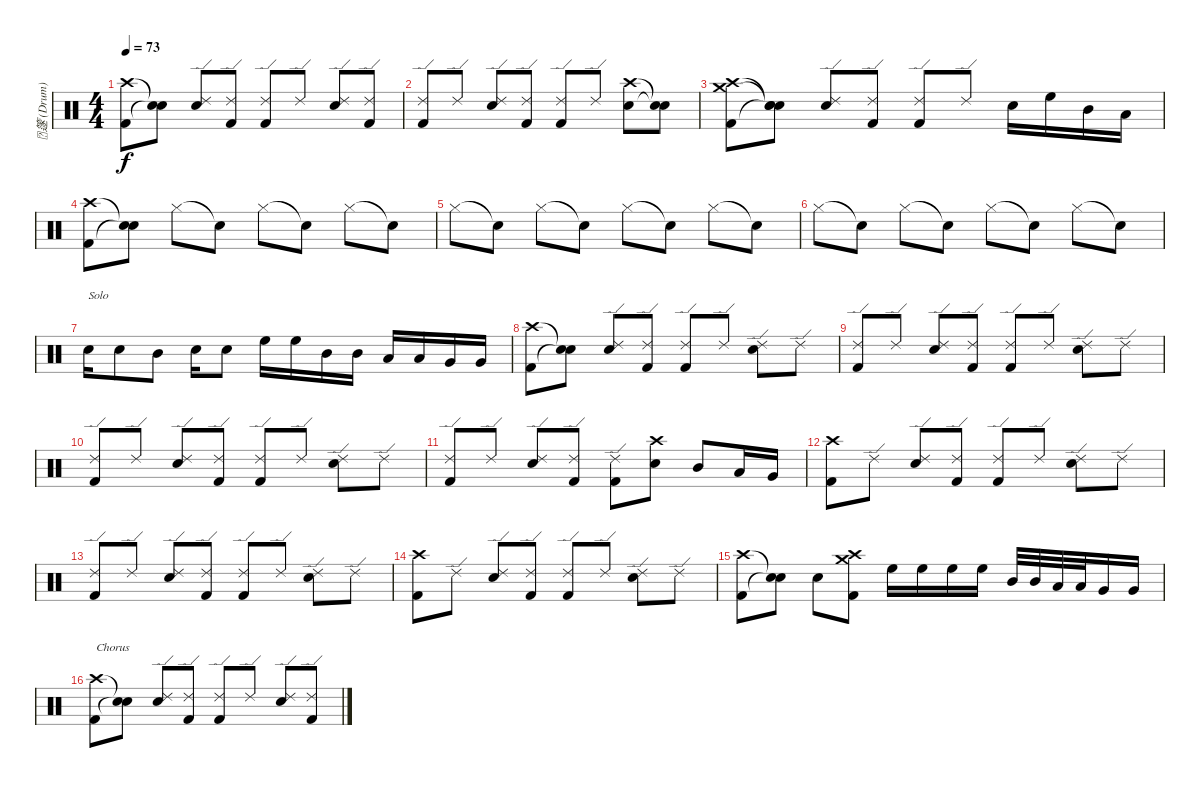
\track ("篴 (Drum)" "篴 (Drum)") {instrument percussion}
\staff {score}
\articulation defaults
\ts (4 4)
\tempo 73
\clef neutral
\ks c
("Crash high (hit)" "Kick (hit) 2").8{dy f} ("Snare (hit)"{t} "Snare (hit)"{t}).8 ("Ride (edge) 2" "Electric Snare (hit)").8 ("Ride (edge) 2" "Kick (hit) 2").8 ("Ride (edge) 2" "Kick (hit) 2").8 "Ride (edge) 2".8 ("Ride (edge) 2" "Electric Snare (hit)").8 ("Ride (edge) 2" "Kick (hit) 2").8 |
("Ride (edge) 2" "Kick (hit) 2").8 "Ride (edge) 2".8 ("Ride (edge) 2" "Electric Snare (hit)").8 ("Ride (edge) 2" "Kick (hit) 2").8 ("Ride (edge) 2" "Kick (hit) 2").8 "Ride (edge) 2".8 ("Crash high (hit)" "Electric Snare (hit)").8 ("Snare (hit)"{t} "Snare (hit)"{t}).8 |
("Crash high (hit)" "Crash medium (hit)" "Kick (hit) 2").8 ("Snare (hit)"{t} "Snare (hit)"{t} "Snare (hit)"{t}).8 ("Ride (edge) 2" "Electric Snare (hit)").8 ("Ride (edge) 2" "Kick (hit) 2").8 ("Ride (edge) 2" "Kick (hit) 2").8 "Ride (edge) 2".8 "Electric Snare (hit)".16 "High Floor Tom (hit)".16 "Mid Tom (hit)".16 "Low Tom (hit)".16 |
("Crash high (hit)" "Kick (hit) 2").8 ("Snare (hit)"{t} "Snare (hit)"{t}).8 "Hi-Hat (closed)".8 "Snare (hit)"{t}.8 "Hi-Hat (closed)".8 "Snare (hit)"{t}.8 "Hi-Hat (closed)".8 "Snare (hit)"{t}.8 |
"Hi-Hat (closed)".8 "Snare (hit)"{t}.8 "Hi-Hat (closed)".8 "Snare (hit)"{t}.8 "Hi-Hat (closed)".8 "Snare (hit)"{t}.8 "Hi-Hat (closed)".8 "Snare (hit)"{t}.8 |
"Hi-Hat (closed)".8 "Snare (hit)"{t}.8 "Hi-Hat (closed)".8 "Snare (hit)"{t}.8 "Hi-Hat (closed)".8 "Snare (hit)"{t}.8 "Hi-Hat (closed)".8 "Snare (hit)"{t}.8 |
"Electric Snare (hit)".16{txt "Solo"} "Electric Snare (hit)".8 "Mid Tom (hit)".8 "Electric Snare (hit)".16 "Electric Snare (hit)".8 "High Floor Tom (hit)".16 "High Floor Tom (hit)".16 "Mid Tom (hit)".16 "Mid Tom (hit)".16 "Low Tom (hit)".16 "Low Tom (hit)".16 "Very Low Tom (hit)".16 "Very Low Tom (hit)".16 |
("Crash high (hit)" "Kick (hit) 2").8 ("Snare (hit)"{t} "Snare (hit)"{t}).8 ("Ride (edge) 2" "Electric Snare (hit)").8 ("Ride (edge) 2" "Kick (hit) 2").8 ("Ride (edge) 2" "Kick (hit) 2").8 "Ride (edge) 2".8 ("Ride (edge) 2" "Electric Snare (hit)").8 "Ride (edge) 2".8 |
("Ride (edge) 2" "Kick (hit) 2").8 "Ride (edge) 2".8 ("Ride (edge) 2" "Electric Snare (hit)").8 ("Ride (edge) 2" "Kick (hit) 2").8 ("Ride (edge) 2" "Kick (hit) 2").8 "Ride (edge) 2".8 ("Ride (edge) 2" "Electric Snare (hit)").8 "Ride (edge) 2".8 |
("Ride (edge) 2" "Kick (hit) 2").8 "Ride (edge) 2".8 ("Ride (edge) 2" "Electric Snare (hit)").8 ("Ride (edge) 2" "Kick (hit) 2").8 ("Ride (edge) 2" "Kick (hit) 2").8 "Ride (edge) 2".8 ("Ride (edge) 2" "Electric Snare (hit)").8 "Ride (edge) 2".8 |
("Ride (edge) 2" "Kick (hit) 2").8 "Ride (edge) 2".8 ("Ride (edge) 2" "Electric Snare (hit)").8 ("Ride (edge) 2" "Kick (hit) 2").8 ("Ride (edge) 2" "Kick (hit) 2").8 ("Crash high (hit)" "Electric Snare (hit)").8 "Mid Tom (hit)".8 "Low Tom (hit)".16 "Very Low Tom (hit)".16 |
("Crash high (hit)" "Kick (hit) 2").8 "Ride (edge) 2".8 ("Ride (edge) 2" "Electric Snare (hit)").8 ("Ride (edge) 2" "Kick (hit) 2").8 ("Ride (edge) 2" "Kick (hit) 2").8 "Ride (edge) 2".8 ("Ride (edge) 2" "Electric Snare (hit)").8 "Ride (edge) 2".8 |
("Ride (edge) 2" "Kick (hit) 2").8 "Ride (edge) 2".8 ("Ride (edge) 2" "Electric Snare (hit)").8 ("Ride (edge) 2" "Kick (hit) 2").8 ("Ride (edge) 2" "Kick (hit) 2").8 "Ride (edge) 2".8 ("Ride (edge) 2" "Electric Snare (hit)").8 "Ride (edge) 2".8 |
("Crash high (hit)" "Kick (hit) 2").8 "Ride (edge) 2".8 ("Ride (edge) 2" "Electric Snare (hit)").8 ("Ride (edge) 2" "Kick (hit) 2").8 ("Ride (edge) 2" "Kick (hit) 2").8 "Ride (edge) 2".8 ("Ride (edge) 2" "Electric Snare (hit)").8 "Ride (edge) 2".8 |
("Crash high (hit)" "Kick (hit) 2").8 ("Snare (hit)"{t} "Snare (hit)"{t}).8 "Electric Snare (hit)".8 ("Crash high (hit)" "Crash medium (hit)" "Kick (hit) 2").8 "High Floor Tom (hit)".16 "High Floor Tom (hit)".16 "High Floor Tom (hit)".16 "High Floor Tom (hit)".16 "Mid Tom (hit)".32 "Mid Tom (hit)".32 "Low Tom (hit)".32 "Low Tom (hit)".32 "Very Low Tom (hit)".16 "Very Low Tom (hit)".16 |
("Crash high (hit)" "Kick (hit) 2").8{txt "Chorus"} ("Snare (hit)"{t} "Snare (hit)"{t}).8 ("Ride (edge) 2" "Electric Snare (hit)").8 ("Ride (edge) 2" "Kick (hit) 2").8 ("Ride (edge) 2" "Kick (hit) 2").8 "Ride (edge) 2".8 ("Ride (edge) 2" "Electric Snare (hit)").8 ("Ride (edge) 2" "Kick (hit) 2").8
